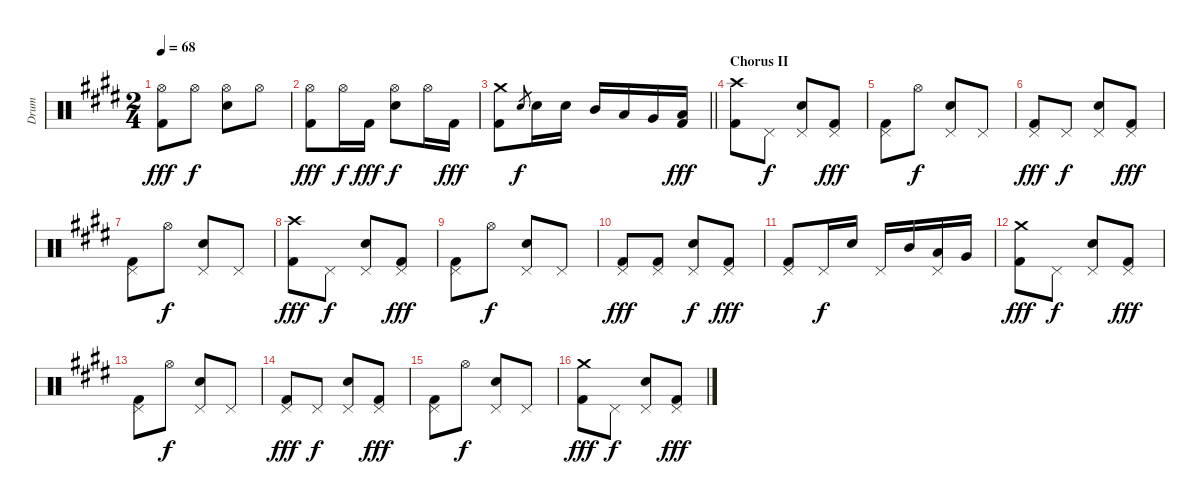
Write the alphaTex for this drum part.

\track ("Drum" "Drum") {instrument percussion}
\staff {score}
\articulation defaults
\ts (2 4)
\tempo 68
\clef neutral
\ks e
("Hi-Hat (open)" "Kick (hit) 2").8{dy fff} "Hi-Hat (open)".8{dy f} ("Hi-Hat (open)" "Snare (hit) 2").8 "Hi-Hat (open)".8 |
("Hi-Hat (open)" "Kick (hit) 2").8{dy fff} "Hi-Hat (open)".16{dy f} "Kick (hit) 2".16{dy fff} ("Hi-Hat (open)" "Snare (hit) 2").8{dy f} "Hi-Hat (open)".16 "Kick (hit) 2".16{dy fff} |
\barLineRight lightlight
("Crash medium (hit)" "Kick (hit) 2").8 "Snare (hit) 2".8{gr dy f} "Snare (hit) 2".16 "Snare (hit) 2".16 "Mid Tom (hit)".16 "Low Tom (hit)".16 "Very Low Tom (hit)".16 ("Low Floor Tom (hit)" "Kick (hit) 2").16{dy fff} |
\section ("" "Chorus II")
("Crash high (hit)" "Kick (hit) 2").8 "Pedal Hi-Hat (hit)".8{dy f} ("Pedal Hi-Hat (hit)" "Snare (hit) 2").8 ("Pedal Hi-Hat (hit)" "Kick (hit) 2").8{dy fff} |
("Pedal Hi-Hat (hit)" "Kick (hit) 2").8 "Hi-Hat (open)".8{dy f} ("Pedal Hi-Hat (hit)" "Snare (hit) 2").8 "Pedal Hi-Hat (hit)".8 |
("Pedal Hi-Hat (hit)" "Kick (hit) 2").8{dy fff} "Pedal Hi-Hat (hit)".8{dy f} ("Pedal Hi-Hat (hit)" "Snare (hit) 2").8 ("Pedal Hi-Hat (hit)" "Kick (hit) 2").8{dy fff} |
("Pedal Hi-Hat (hit)" "Kick (hit) 2").8 "Hi-Hat (open)".8{dy f} ("Pedal Hi-Hat (hit)" "Snare (hit) 2").8 "Pedal Hi-Hat (hit)".8 |
("Crash high (hit)" "Kick (hit) 2").8{dy fff} "Pedal Hi-Hat (hit)".8{dy f} ("Pedal Hi-Hat (hit)" "Snare (hit) 2").8 ("Pedal Hi-Hat (hit)" "Kick (hit) 2").8{dy fff} |
("Pedal Hi-Hat (hit)" "Kick (hit) 2").8 "Hi-Hat (open)".8{dy f} ("Pedal Hi-Hat (hit)" "Snare (hit) 2").8 "Pedal Hi-Hat (hit)".8 |
("Pedal Hi-Hat (hit)" "Kick (hit) 2").8{dy fff} ("Pedal Hi-Hat (hit)" "Kick (hit) 2").8 ("Pedal Hi-Hat (hit)" "Snare (hit) 2").8{dy f} ("Pedal Hi-Hat (hit)" "Kick (hit) 2").8{dy fff} |
("Pedal Hi-Hat (hit)" "Kick (hit) 2").8 "Pedal Hi-Hat (hit)".16{dy f} "Snare (hit) 2".16 "Pedal Hi-Hat (hit)".16 "Mid Tom (hit)".16 ("Pedal Hi-Hat (hit)" "Low Tom (hit)").16 "Very Low Tom (hit)".16 |
("Crash medium (hit)" "Kick (hit) 2").8{dy fff} "Pedal Hi-Hat (hit)".8{dy f} ("Pedal Hi-Hat (hit)" "Snare (hit) 2").8 ("Pedal Hi-Hat (hit)" "Kick (hit) 2").8{dy fff} |
("Pedal Hi-Hat (hit)" "Kick (hit) 2").8 "Hi-Hat (open)".8{dy f} ("Pedal Hi-Hat (hit)" "Snare (hit) 2").8 "Pedal Hi-Hat (hit)".8 |
("Pedal Hi-Hat (hit)" "Kick (hit) 2").8{dy fff} "Pedal Hi-Hat (hit)".8{dy f} ("Pedal Hi-Hat (hit)" "Snare (hit) 2").8 ("Pedal Hi-Hat (hit)" "Kick (hit) 2").8{dy fff} |
("Pedal Hi-Hat (hit)" "Kick (hit) 2").8 "Hi-Hat (open)".8{dy f} ("Pedal Hi-Hat (hit)" "Snare (hit) 2").8 "Pedal Hi-Hat (hit)".8 |
("Crash medium (hit)" "Kick (hit) 2").8{dy fff} "Pedal Hi-Hat (hit)".8{dy f} ("Pedal Hi-Hat (hit)" "Snare (hit) 2").8 ("Pedal Hi-Hat (hit)" "Kick (hit) 2").8{dy fff}
